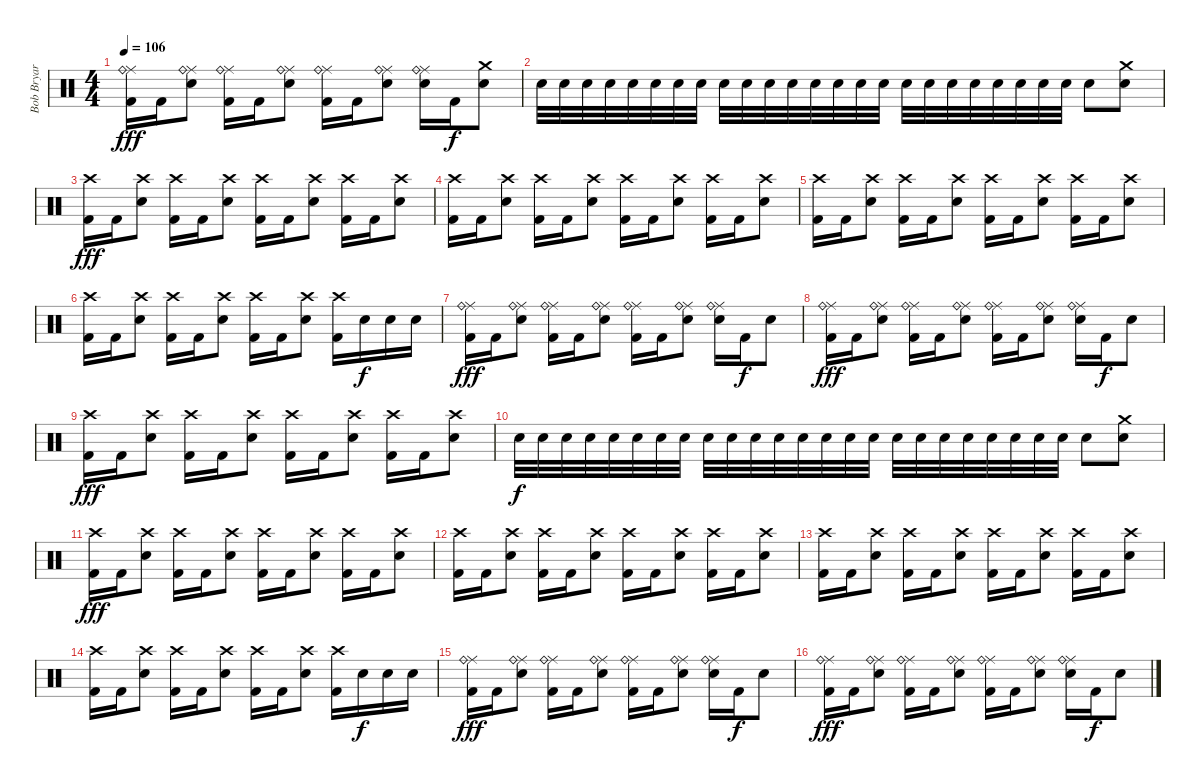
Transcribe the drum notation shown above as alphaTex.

\track ("Bob Bryar" "Bob Bryar") {instrument percussion}
\staff {score}
\articulation defaults
\ts (4 4)
\tempo 106
\clef neutral
\ks c
("Kick (hit) 2" "Ride (middle)" "Ride (bell)").16{dy fff} "Kick (hit) 2".16 ("Electric Snare (hit)" "Ride (middle)" "Ride (bell)").8 ("Kick (hit) 2" "Ride (middle)" "Ride (bell)").16 "Kick (hit) 2".16 ("Electric Snare (hit)" "Ride (middle)" "Ride (bell)").8 ("Kick (hit) 2" "Ride (middle)" "Ride (bell)").16 "Kick (hit) 2".16 ("Electric Snare (hit)" "Ride (middle)" "Ride (bell)").8 ("Electric Snare (hit)" "Ride (middle)" "Ride (bell)").16 "Kick (hit) 2".16{dy f} ("Crash medium (hit)" "Electric Snare (hit)").8 |
"Electric Snare (hit)".32 "Electric Snare (hit)".32 "Electric Snare (hit)".32 "Electric Snare (hit)".32 "Electric Snare (hit)".32 "Electric Snare (hit)".32 "Electric Snare (hit)".32 "Electric Snare (hit)".32 "Electric Snare (hit)".32 "Electric Snare (hit)".32 "Electric Snare (hit)".32 "Electric Snare (hit)".32 "Electric Snare (hit)".32 "Electric Snare (hit)".32 "Electric Snare (hit)".32 "Electric Snare (hit)".32 "Electric Snare (hit)".32 "Electric Snare (hit)".32 "Electric Snare (hit)".32 "Electric Snare (hit)".32 "Electric Snare (hit)".32 "Electric Snare (hit)".32 "Electric Snare (hit)".32 "Electric Snare (hit)".32 "Electric Snare (hit)".8 ("Electric Snare (hit)" "Crash medium (hit)").8 |
("Kick (hit) 2" "Crash high (hit)").16{dy fff} "Kick (hit) 2".16 ("Electric Snare (hit)" "Crash high (hit)").8 ("Kick (hit) 2" "Crash high (hit)").16 "Kick (hit) 2".16 ("Electric Snare (hit)" "Crash high (hit)").8 ("Kick (hit) 2" "Crash high (hit)").16 "Kick (hit) 2".16 ("Electric Snare (hit)" "Crash high (hit)").8 ("Kick (hit) 2" "Crash high (hit)").16 "Kick (hit) 2".16 ("Electric Snare (hit)" "Crash high (hit)").8 |
("Kick (hit) 2" "Crash high (hit)").16 "Kick (hit) 2".16 ("Electric Snare (hit)" "Crash high (hit)").8 ("Kick (hit) 2" "Crash high (hit)").16 "Kick (hit) 2".16 ("Electric Snare (hit)" "Crash high (hit)").8 ("Kick (hit) 2" "Crash high (hit)").16 "Kick (hit) 2".16 ("Electric Snare (hit)" "Crash high (hit)").8 ("Kick (hit) 2" "Crash high (hit)").16 "Kick (hit) 2".16 ("Electric Snare (hit)" "Crash high (hit)").8 |
("Kick (hit) 2" "Crash high (hit)").16 "Kick (hit) 2".16 ("Electric Snare (hit)" "Crash high (hit)").8 ("Kick (hit) 2" "Crash high (hit)").16 "Kick (hit) 2".16 ("Electric Snare (hit)" "Crash high (hit)").8 ("Kick (hit) 2" "Crash high (hit)").16 "Kick (hit) 2".16 ("Electric Snare (hit)" "Crash high (hit)").8 ("Kick (hit) 2" "Crash high (hit)").16 "Kick (hit) 2".16 ("Electric Snare (hit)" "Crash high (hit)").8 |
("Kick (hit) 2" "Crash high (hit)").16 "Kick (hit) 2".16 ("Electric Snare (hit)" "Crash high (hit)").8 ("Kick (hit) 2" "Crash high (hit)").16 "Kick (hit) 2".16 ("Electric Snare (hit)" "Crash high (hit)").8 ("Kick (hit) 2" "Crash high (hit)").16 "Kick (hit) 2".16 ("Electric Snare (hit)" "Crash high (hit)").8 ("Kick (hit) 2" "Crash high (hit)").16 "Electric Snare (hit)".16{dy f} "Electric Snare (hit)".16 "Electric Snare (hit)".16 |
("Kick (hit) 2" "Ride (middle)" "Ride (bell)").16{dy fff} "Kick (hit) 2".16 ("Electric Snare (hit)" "Ride (middle)" "Ride (bell)").8 ("Kick (hit) 2" "Ride (middle)" "Ride (bell)").16 "Kick (hit) 2".16 ("Electric Snare (hit)" "Ride (middle)" "Ride (bell)").8 ("Kick (hit) 2" "Ride (middle)" "Ride (bell)").16 "Kick (hit) 2".16 ("Electric Snare (hit)" "Ride (middle)" "Ride (bell)").8 ("Electric Snare (hit)" "Ride (middle)" "Ride (bell)").16 "Kick (hit) 2".16{dy f} "Electric Snare (hit)".8 |
("Kick (hit) 2" "Ride (middle)" "Ride (bell)").16{dy fff} "Kick (hit) 2".16 ("Electric Snare (hit)" "Ride (middle)" "Ride (bell)").8 ("Kick (hit) 2" "Ride (middle)" "Ride (bell)").16 "Kick (hit) 2".16 ("Electric Snare (hit)" "Ride (middle)" "Ride (bell)").8 ("Kick (hit) 2" "Ride (middle)" "Ride (bell)").16 "Kick (hit) 2".16 ("Electric Snare (hit)" "Ride (middle)" "Ride (bell)").8 ("Electric Snare (hit)" "Ride (middle)" "Ride (bell)").16 "Kick (hit) 2".16{dy f} "Electric Snare (hit)".8 |
("Kick (hit) 2" "Crash high (hit)").16{dy fff} "Kick (hit) 2".16 ("Electric Snare (hit)" "Crash high (hit)").8 ("Kick (hit) 2" "Crash high (hit)").16 "Kick (hit) 2".16 ("Electric Snare (hit)" "Crash high (hit)").8 ("Kick (hit) 2" "Crash high (hit)").16 "Kick (hit) 2".16 ("Electric Snare (hit)" "Crash high (hit)").8 ("Kick (hit) 2" "Crash high (hit)").16 "Kick (hit) 2".16 ("Electric Snare (hit)" "Crash high (hit)").8 |
"Electric Snare (hit)".32{dy f} "Electric Snare (hit)".32 "Electric Snare (hit)".32 "Electric Snare (hit)".32 "Electric Snare (hit)".32 "Electric Snare (hit)".32 "Electric Snare (hit)".32 "Electric Snare (hit)".32 "Electric Snare (hit)".32 "Electric Snare (hit)".32 "Electric Snare (hit)".32 "Electric Snare (hit)".32 "Electric Snare (hit)".32 "Electric Snare (hit)".32 "Electric Snare (hit)".32 "Electric Snare (hit)".32 "Electric Snare (hit)".32 "Electric Snare (hit)".32 "Electric Snare (hit)".32 "Electric Snare (hit)".32 "Electric Snare (hit)".32 "Electric Snare (hit)".32 "Electric Snare (hit)".32 "Electric Snare (hit)".32 "Electric Snare (hit)".8 ("Electric Snare (hit)" "Crash medium (hit)").8 |
("Kick (hit) 2" "Crash high (hit)").16{dy fff} "Kick (hit) 2".16 ("Electric Snare (hit)" "Crash high (hit)").8 ("Kick (hit) 2" "Crash high (hit)").16 "Kick (hit) 2".16 ("Electric Snare (hit)" "Crash high (hit)").8 ("Kick (hit) 2" "Crash high (hit)").16 "Kick (hit) 2".16 ("Electric Snare (hit)" "Crash high (hit)").8 ("Kick (hit) 2" "Crash high (hit)").16 "Kick (hit) 2".16 ("Electric Snare (hit)" "Crash high (hit)").8 |
("Kick (hit) 2" "Crash high (hit)").16 "Kick (hit) 2".16 ("Electric Snare (hit)" "Crash high (hit)").8 ("Kick (hit) 2" "Crash high (hit)").16 "Kick (hit) 2".16 ("Electric Snare (hit)" "Crash high (hit)").8 ("Kick (hit) 2" "Crash high (hit)").16 "Kick (hit) 2".16 ("Electric Snare (hit)" "Crash high (hit)").8 ("Kick (hit) 2" "Crash high (hit)").16 "Kick (hit) 2".16 ("Electric Snare (hit)" "Crash high (hit)").8 |
("Kick (hit) 2" "Crash high (hit)").16 "Kick (hit) 2".16 ("Electric Snare (hit)" "Crash high (hit)").8 ("Kick (hit) 2" "Crash high (hit)").16 "Kick (hit) 2".16 ("Electric Snare (hit)" "Crash high (hit)").8 ("Kick (hit) 2" "Crash high (hit)").16 "Kick (hit) 2".16 ("Electric Snare (hit)" "Crash high (hit)").8 ("Kick (hit) 2" "Crash high (hit)").16 "Kick (hit) 2".16 ("Electric Snare (hit)" "Crash high (hit)").8 |
("Kick (hit) 2" "Crash high (hit)").16 "Kick (hit) 2".16 ("Electric Snare (hit)" "Crash high (hit)").8 ("Kick (hit) 2" "Crash high (hit)").16 "Kick (hit) 2".16 ("Electric Snare (hit)" "Crash high (hit)").8 ("Kick (hit) 2" "Crash high (hit)").16 "Kick (hit) 2".16 ("Electric Snare (hit)" "Crash high (hit)").8 ("Kick (hit) 2" "Crash high (hit)").16 "Electric Snare (hit)".16{dy f} "Electric Snare (hit)".16 "Electric Snare (hit)".16 |
("Kick (hit) 2" "Ride (middle)" "Ride (bell)").16{dy fff} "Kick (hit) 2".16 ("Electric Snare (hit)" "Ride (middle)" "Ride (bell)").8 ("Kick (hit) 2" "Ride (middle)" "Ride (bell)").16 "Kick (hit) 2".16 ("Electric Snare (hit)" "Ride (middle)" "Ride (bell)").8 ("Kick (hit) 2" "Ride (middle)" "Ride (bell)").16 "Kick (hit) 2".16 ("Electric Snare (hit)" "Ride (middle)" "Ride (bell)").8 ("Electric Snare (hit)" "Ride (middle)" "Ride (bell)").16 "Kick (hit) 2".16{dy f} "Electric Snare (hit)".8 |
("Kick (hit) 2" "Ride (middle)" "Ride (bell)").16{dy fff} "Kick (hit) 2".16 ("Electric Snare (hit)" "Ride (middle)" "Ride (bell)").8 ("Kick (hit) 2" "Ride (middle)" "Ride (bell)").16 "Kick (hit) 2".16 ("Electric Snare (hit)" "Ride (middle)" "Ride (bell)").8 ("Kick (hit) 2" "Ride (middle)" "Ride (bell)").16 "Kick (hit) 2".16 ("Electric Snare (hit)" "Ride (middle)" "Ride (bell)").8 ("Electric Snare (hit)" "Ride (middle)" "Ride (bell)").16 "Kick (hit) 2".16{dy f} "Electric Snare (hit)".8
